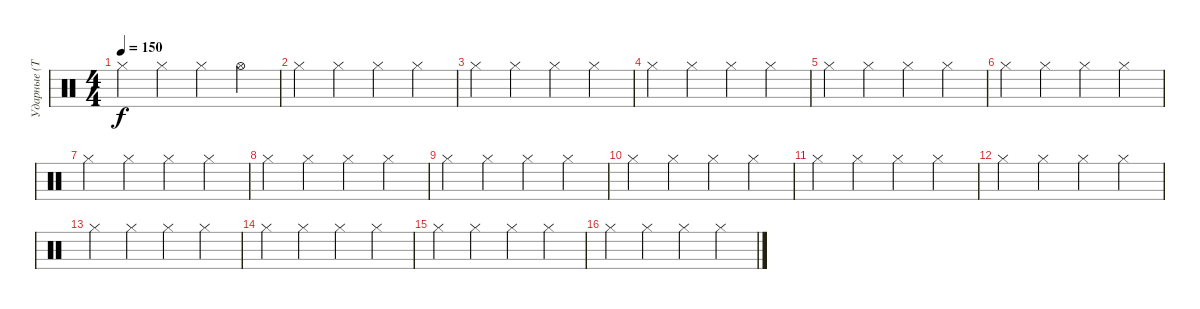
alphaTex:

\track ("Ударные (Тоша)" "Ударные (Т") {instrument percussion}
\staff {score}
\articulation defaults
\ts (4 4)
\tempo 150
\clef neutral
\ks c "Hi-Hat (closed)".4{dy f} "Hi-Hat (closed)".4 "Hi-Hat (closed)".4 "Hi-Hat (open)".4
|
"Hi-Hat (closed)".4 "Hi-Hat (closed)".4 "Hi-Hat (closed)".4 "Hi-Hat (closed)".4 |
"Hi-Hat (closed)".4 "Hi-Hat (closed)".4 "Hi-Hat (closed)".4 "Hi-Hat (closed)".4 |
"Hi-Hat (closed)".4 "Hi-Hat (closed)".4 "Hi-Hat (closed)".4 "Hi-Hat (closed)".4 |
"Hi-Hat (closed)".4 "Hi-Hat (closed)".4 "Hi-Hat (closed)".4 "Hi-Hat (closed)".4 |
"Hi-Hat (closed)".4 "Hi-Hat (closed)".4 "Hi-Hat (closed)".4 "Hi-Hat (closed)".4 |
"Hi-Hat (closed)".4 "Hi-Hat (closed)".4 "Hi-Hat (closed)".4 "Hi-Hat (closed)".4 |
"Hi-Hat (closed)".4 "Hi-Hat (closed)".4 "Hi-Hat (closed)".4 "Hi-Hat (closed)".4 |
"Hi-Hat (closed)".4 "Hi-Hat (closed)".4 "Hi-Hat (closed)".4 "Hi-Hat (closed)".4 |
"Hi-Hat (closed)".4 "Hi-Hat (closed)".4 "Hi-Hat (closed)".4 "Hi-Hat (closed)".4 |
"Hi-Hat (closed)".4 "Hi-Hat (closed)".4 "Hi-Hat (closed)".4 "Hi-Hat (closed)".4 |
"Hi-Hat (closed)".4 "Hi-Hat (closed)".4 "Hi-Hat (closed)".4 "Hi-Hat (closed)".4 |
"Hi-Hat (closed)".4 "Hi-Hat (closed)".4 "Hi-Hat (closed)".4 "Hi-Hat (closed)".4 |
"Hi-Hat (closed)".4 "Hi-Hat (closed)".4 "Hi-Hat (closed)".4 "Hi-Hat (closed)".4 |
"Hi-Hat (closed)".4 "Hi-Hat (closed)".4 "Hi-Hat (closed)".4 "Hi-Hat (closed)".4 |
"Hi-Hat (closed)".4 "Hi-Hat (closed)".4 "Hi-Hat (closed)".4 "Hi-Hat (closed)".4
